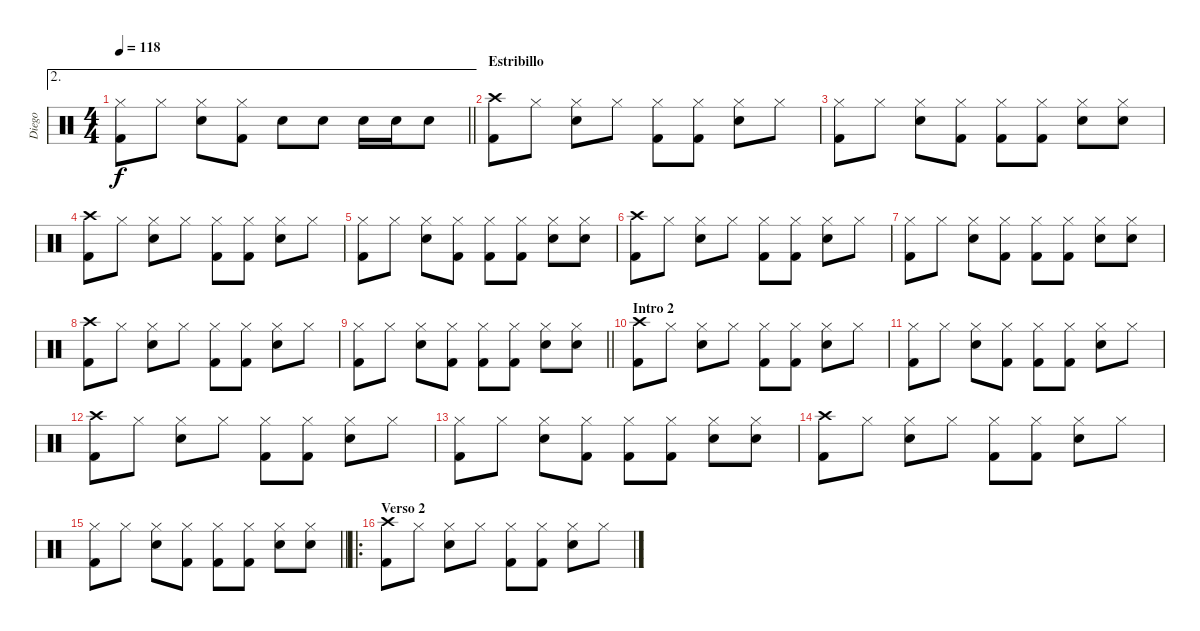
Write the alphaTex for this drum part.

\track ("Diego" "Diego") {instrument percussion}
\staff {score}
\articulation defaults
\ae 2
\ts (4 4)
\tempo 118
\clef neutral
\barLineRight lightlight
\ks c
("Hi-Hat (closed)" "Kick (hit) 2").8{dy f} "Hi-Hat (closed)".8 ("Hi-Hat (closed)" "Snare (hit) 2").8 ("Hi-Hat (closed)" "Kick (hit) 2").8 "Snare (hit) 2".8 "Snare (hit) 2".8 "Snare (hit) 2".16 "Snare (hit) 2".16 "Snare (hit) 2".8 |
\section ("" "Estribillo")
("Crash high (hit)" "Kick (hit) 2").8 "Hi-Hat (closed)".8 ("Hi-Hat (closed)" "Snare (hit) 2").8 "Hi-Hat (closed)".8 ("Hi-Hat (closed)" "Kick (hit) 2").8 ("Hi-Hat (closed)" "Kick (hit) 2").8 ("Hi-Hat (closed)" "Snare (hit) 2").8 "Hi-Hat (closed)".8 |
("Hi-Hat (closed)" "Kick (hit) 2").8 "Hi-Hat (closed)".8 ("Hi-Hat (closed)" "Snare (hit) 2").8 ("Hi-Hat (closed)" "Kick (hit) 2").8 ("Hi-Hat (closed)" "Kick (hit) 2").8 ("Hi-Hat (closed)" "Kick (hit) 2").8 ("Hi-Hat (closed)" "Snare (hit) 2").8 ("Hi-Hat (closed)" "Snare (hit) 2").8 |
("Crash high (hit)" "Kick (hit) 2").8 "Hi-Hat (closed)".8 ("Hi-Hat (closed)" "Snare (hit) 2").8 "Hi-Hat (closed)".8 ("Hi-Hat (closed)" "Kick (hit) 2").8 ("Hi-Hat (closed)" "Kick (hit) 2").8 ("Hi-Hat (closed)" "Snare (hit) 2").8 "Hi-Hat (closed)".8 |
("Hi-Hat (closed)" "Kick (hit) 2").8 "Hi-Hat (closed)".8 ("Hi-Hat (closed)" "Snare (hit) 2").8 ("Hi-Hat (closed)" "Kick (hit) 2").8 ("Hi-Hat (closed)" "Kick (hit) 2").8 ("Hi-Hat (closed)" "Kick (hit) 2").8 ("Hi-Hat (closed)" "Snare (hit) 2").8 ("Hi-Hat (closed)" "Snare (hit) 2").8 |
("Crash high (hit)" "Kick (hit) 2").8 "Hi-Hat (closed)".8 ("Hi-Hat (closed)" "Snare (hit) 2").8 "Hi-Hat (closed)".8 ("Hi-Hat (closed)" "Kick (hit) 2").8 ("Hi-Hat (closed)" "Kick (hit) 2").8 ("Hi-Hat (closed)" "Snare (hit) 2").8 "Hi-Hat (closed)".8 |
("Hi-Hat (closed)" "Kick (hit) 2").8 "Hi-Hat (closed)".8 ("Hi-Hat (closed)" "Snare (hit) 2").8 ("Hi-Hat (closed)" "Kick (hit) 2").8 ("Hi-Hat (closed)" "Kick (hit) 2").8 ("Hi-Hat (closed)" "Kick (hit) 2").8 ("Hi-Hat (closed)" "Snare (hit) 2").8 ("Hi-Hat (closed)" "Snare (hit) 2").8 |
("Crash high (hit)" "Kick (hit) 2").8 "Hi-Hat (closed)".8 ("Hi-Hat (closed)" "Snare (hit) 2").8 "Hi-Hat (closed)".8 ("Hi-Hat (closed)" "Kick (hit) 2").8 ("Hi-Hat (closed)" "Kick (hit) 2").8 ("Hi-Hat (closed)" "Snare (hit) 2").8 "Hi-Hat (closed)".8 |
\barLineRight lightlight
("Hi-Hat (closed)" "Kick (hit) 2").8 "Hi-Hat (closed)".8 ("Hi-Hat (closed)" "Snare (hit) 2").8 ("Hi-Hat (closed)" "Kick (hit) 2").8 ("Hi-Hat (closed)" "Kick (hit) 2").8 ("Hi-Hat (closed)" "Kick (hit) 2").8 ("Hi-Hat (closed)" "Snare (hit) 2").8 ("Hi-Hat (closed)" "Snare (hit) 2").8 |
\section ("" "Intro 2")
("Crash high (hit)" "Kick (hit) 2").8 "Hi-Hat (closed)".8 ("Hi-Hat (closed)" "Snare (hit) 2").8 "Hi-Hat (closed)".8 ("Hi-Hat (closed)" "Kick (hit) 2").8 ("Hi-Hat (closed)" "Kick (hit) 2").8 ("Hi-Hat (closed)" "Snare (hit) 2").8 "Hi-Hat (closed)".8 |
("Hi-Hat (closed)" "Kick (hit) 2").8 "Hi-Hat (closed)".8 ("Hi-Hat (closed)" "Snare (hit) 2").8 ("Hi-Hat (closed)" "Kick (hit) 2").8 ("Hi-Hat (closed)" "Kick (hit) 2").8 ("Hi-Hat (closed)" "Kick (hit) 2").8 ("Hi-Hat (closed)" "Snare (hit) 2").8 "Hi-Hat (closed)".8 |
("Crash high (hit)" "Kick (hit) 2").8 "Hi-Hat (closed)".8 ("Hi-Hat (closed)" "Snare (hit) 2").8 "Hi-Hat (closed)".8 ("Hi-Hat (closed)" "Kick (hit) 2").8 ("Hi-Hat (closed)" "Kick (hit) 2").8 ("Hi-Hat (closed)" "Snare (hit) 2").8 "Hi-Hat (closed)".8 |
("Hi-Hat (closed)" "Kick (hit) 2").8 "Hi-Hat (closed)".8 ("Hi-Hat (closed)" "Snare (hit) 2").8 ("Hi-Hat (closed)" "Kick (hit) 2").8 ("Hi-Hat (closed)" "Kick (hit) 2").8 ("Hi-Hat (closed)" "Kick (hit) 2").8 ("Hi-Hat (closed)" "Snare (hit) 2").8 ("Hi-Hat (closed)" "Snare (hit) 2").8 |
("Crash high (hit)" "Kick (hit) 2").8 "Hi-Hat (closed)".8 ("Hi-Hat (closed)" "Snare (hit) 2").8 "Hi-Hat (closed)".8 ("Hi-Hat (closed)" "Kick (hit) 2").8 ("Hi-Hat (closed)" "Kick (hit) 2").8 ("Hi-Hat (closed)" "Snare (hit) 2").8 "Hi-Hat (closed)".8 |
\barLineRight lightlight
("Hi-Hat (closed)" "Kick (hit) 2").8 "Hi-Hat (closed)".8 ("Hi-Hat (closed)" "Snare (hit) 2").8 ("Hi-Hat (closed)" "Kick (hit) 2").8 ("Hi-Hat (closed)" "Kick (hit) 2").8 ("Hi-Hat (closed)" "Kick (hit) 2").8 ("Hi-Hat (closed)" "Snare (hit) 2").8 ("Hi-Hat (closed)" "Snare (hit) 2").8 |
\ro
\section ("" "Verso 2")
("Crash high (hit)" "Kick (hit) 2").8 "Hi-Hat (closed)".8 ("Hi-Hat (closed)" "Snare (hit) 2").8 "Hi-Hat (closed)".8 ("Hi-Hat (closed)" "Kick (hit) 2").8 ("Hi-Hat (closed)" "Kick (hit) 2").8 ("Hi-Hat (closed)" "Snare (hit) 2").8 "Hi-Hat (closed)".8
